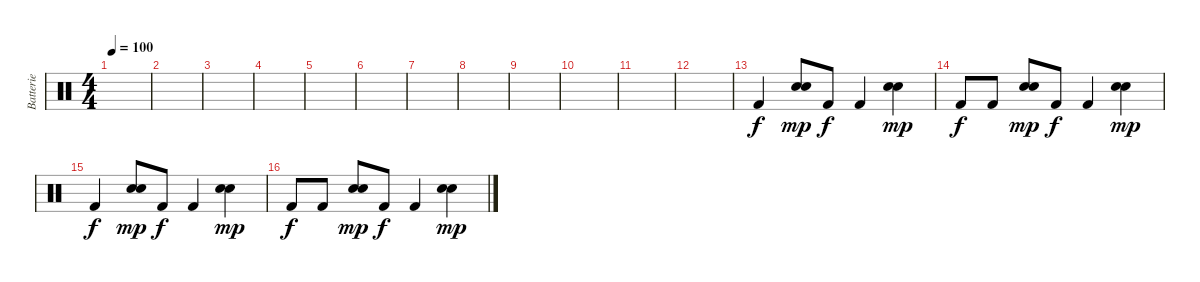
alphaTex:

\track ("Batterie" "Batterie") {instrument percussion}
\staff {score}
\articulation defaults
\ts (4 4)
\tempo 100
\clef neutral
\ks c
|
|
|
|
|
|
|
|
|
|
|
|
"Kick (hit) 2".4 ("Hand Clap (hit)" "Snare (hit) 2").8{dy mp} "Kick (hit) 2".8{dy f} "Kick (hit) 2".4 ("Hand Clap (hit)" "Snare (hit) 2").4{dy mp} |
"Kick (hit) 2".8{dy f} "Kick (hit) 2".8 ("Hand Clap (hit)" "Snare (hit) 2").8{dy mp} "Kick (hit) 2".8{dy f} "Kick (hit) 2".4 ("Hand Clap (hit)" "Snare (hit) 2").4{dy mp} |
"Kick (hit) 2".4{dy f} ("Hand Clap (hit)" "Snare (hit) 2").8{dy mp} "Kick (hit) 2".8{dy f} "Kick (hit) 2".4 ("Hand Clap (hit)" "Snare (hit) 2").4{dy mp} |
"Kick (hit) 2".8{dy f} "Kick (hit) 2".8 ("Hand Clap (hit)" "Snare (hit) 2").8{dy mp} "Kick (hit) 2".8{dy f} "Kick (hit) 2".4 ("Hand Clap (hit)" "Snare (hit) 2").4{dy mp}
